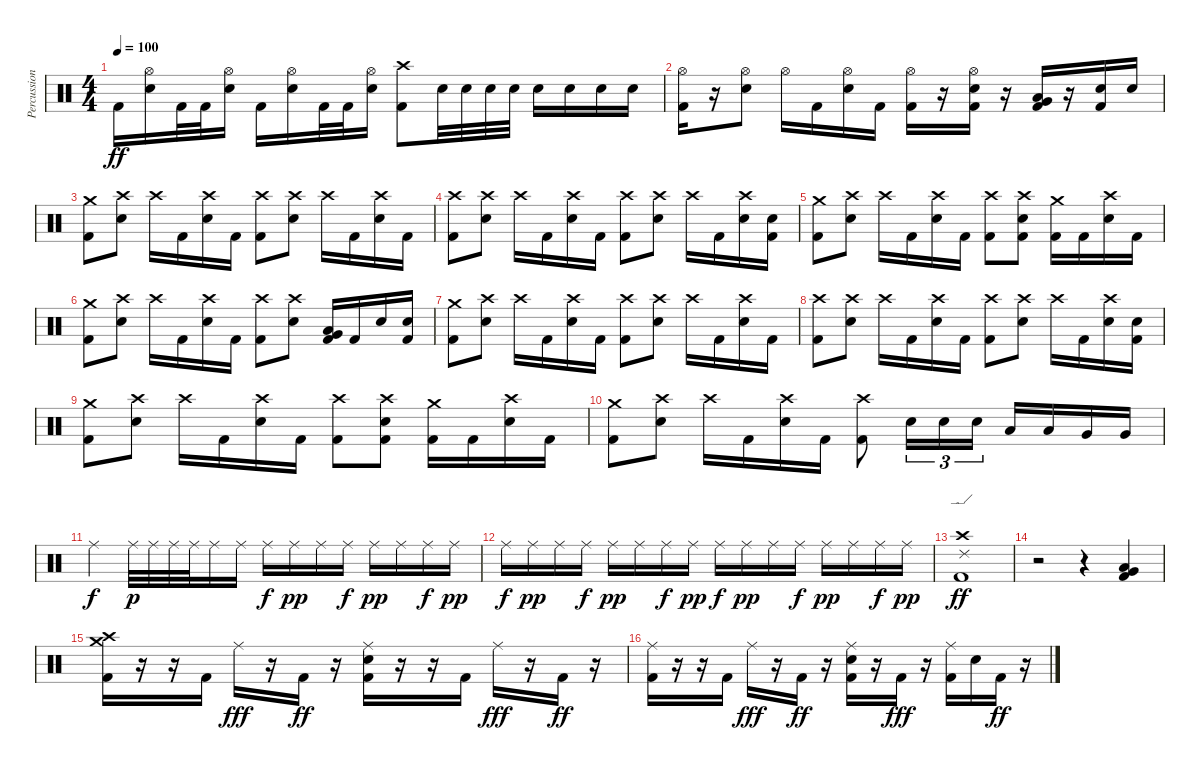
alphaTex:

\track ("Percussion" "Percussion") {instrument percussion}
\staff {score}
\articulation defaults
\ts (4 4)
\tempo 100
\clef neutral
\ks c "Kick (hit) 2".16{dy ff}
("Hi-Hat (open)" "Electric Snare (hit)").16 "Kick (hit) 2".32 "Kick (hit) 2".32 ("Hi-Hat (open)" "Electric Snare (hit)").16 "Kick (hit) 2".16 ("Hi-Hat (open)" "Electric Snare (hit)").16 "Kick (hit) 2".32 "Kick (hit) 2".32 ("Hi-Hat (open)" "Electric Snare (hit)").16 ("Crash high (hit)" "Kick (hit) 2").8 "Electric Snare (hit)".32 "Electric Snare (hit)".32 "Electric Snare (hit)".32 "Electric Snare (hit)".32 "Electric Snare (hit)".16 "Electric Snare (hit)".16 "Electric Snare (hit)".16 "Electric Snare (hit)".16 |
("Hi-Hat (open)" "Kick (hit) 2").16 r.16 ("Hi-Hat (open)" "Electric Snare (hit)").8 "Hi-Hat (open)".16 "Kick (hit) 2".16 ("Hi-Hat (open)" "Electric Snare (hit)").16 "Kick (hit) 2".16 ("Hi-Hat (open)" "Kick (hit) 2").16 r.16 ("Hi-Hat (open)" "Electric Snare (hit)" "Kick (hit) 2").16 r.16 ("Low Tom (hit)" "Very Low Tom (hit)" "Kick (hit) 2").16 r.16 ("Electric Snare (hit)" "Kick (hit) 2").16 "Electric Snare (hit)".16 |
("Crash medium (hit)" "Kick (hit) 2").8 ("Crash high (hit)" "Electric Snare (hit)").8 "Crash high (hit)".16 "Kick (hit) 2".16 ("Crash high (hit)" "Electric Snare (hit)").16 "Kick (hit) 2".16 ("Crash high (hit)" "Kick (hit) 2").8 ("Crash high (hit)" "Electric Snare (hit)").8 "Crash high (hit)".16 "Kick (hit) 2".16 ("Crash high (hit)" "Electric Snare (hit)").16 "Kick (hit) 2".16 |
("Crash high (hit)" "Kick (hit) 2").8 ("Crash high (hit)" "Electric Snare (hit)").8 "Crash high (hit)".16 "Kick (hit) 2".16 ("Crash high (hit)" "Electric Snare (hit)").16 "Kick (hit) 2".16 ("Crash high (hit)" "Kick (hit) 2").8 ("Crash high (hit)" "Electric Snare (hit)").8 "Crash high (hit)".16 "Kick (hit) 2".16 ("Crash high (hit)" "Electric Snare (hit)").16 ("Electric Snare (hit)" "Kick (hit) 2").16 |
("Crash medium (hit)" "Kick (hit) 2").8 ("Crash high (hit)" "Electric Snare (hit)").8 "Crash high (hit)".16 "Kick (hit) 2".16 ("Crash high (hit)" "Electric Snare (hit)").16 "Kick (hit) 2".16 ("Crash high (hit)" "Kick (hit) 2").8 ("Crash high (hit)" "Electric Snare (hit)" "Kick (hit) 2").8 ("Crash medium (hit)" "Kick (hit) 2").16 "Kick (hit) 2".16 ("Crash high (hit)" "Electric Snare (hit)").16 "Kick (hit) 2".16 |
("Crash medium (hit)" "Kick (hit) 2").8 ("Crash high (hit)" "Electric Snare (hit)").8 "Crash high (hit)".16 "Kick (hit) 2".16 ("Crash high (hit)" "Electric Snare (hit)").16 "Kick (hit) 2".16 ("Crash high (hit)" "Kick (hit) 2").8 ("Crash high (hit)" "Electric Snare (hit)").8 ("Low Tom (hit)" "Very Low Tom (hit)" "Kick (hit) 2").16 "Kick (hit) 2".16 "Electric Snare (hit)".16 ("Electric Snare (hit)" "Kick (hit) 2").16 |
("Crash medium (hit)" "Kick (hit) 2").8 ("Crash high (hit)" "Electric Snare (hit)").8 "Crash high (hit)".16 "Kick (hit) 2".16 ("Crash high (hit)" "Electric Snare (hit)").16 "Kick (hit) 2".16 ("Crash high (hit)" "Kick (hit) 2").8 ("Crash high (hit)" "Electric Snare (hit)").8 "Crash high (hit)".16 "Kick (hit) 2".16 ("Crash high (hit)" "Electric Snare (hit)").16 "Kick (hit) 2".16 |
("Crash high (hit)" "Kick (hit) 2").8 ("Crash high (hit)" "Electric Snare (hit)").8 "Crash high (hit)".16 "Kick (hit) 2".16 ("Crash high (hit)" "Electric Snare (hit)").16 "Kick (hit) 2".16 ("Crash high (hit)" "Kick (hit) 2").8 ("Crash high (hit)" "Electric Snare (hit)").8 "Crash high (hit)".16 "Kick (hit) 2".16 ("Crash high (hit)" "Electric Snare (hit)").16 ("Electric Snare (hit)" "Kick (hit) 2").16 |
("Crash medium (hit)" "Kick (hit) 2").8 ("Crash high (hit)" "Electric Snare (hit)").8 "Crash high (hit)".16 "Kick (hit) 2".16 ("Crash high (hit)" "Electric Snare (hit)").16 "Kick (hit) 2".16 ("Crash high (hit)" "Kick (hit) 2").8 ("Crash high (hit)" "Electric Snare (hit)" "Kick (hit) 2").8 ("Crash medium (hit)" "Kick (hit) 2").16 "Kick (hit) 2".16 ("Crash high (hit)" "Electric Snare (hit)").16 "Kick (hit) 2".16 |
("Crash medium (hit)" "Kick (hit) 2").8 ("Crash high (hit)" "Electric Snare (hit)").8 "Crash high (hit)".16 "Kick (hit) 2".16 ("Crash high (hit)" "Electric Snare (hit)").16 "Kick (hit) 2".16 ("Crash high (hit)" "Kick (hit) 2").8 "Electric Snare (hit)".16{tu (3 2)} "Electric Snare (hit)".16{tu (3 2)} "Electric Snare (hit)".16{tu (3 2)} "Low Tom (hit)".16 "Low Tom (hit)".16 "Very Low Tom (hit)".16 "Very Low Tom (hit)".16 |
"Ride (middle)".4{dy f} "Ride (middle)".32{dy p} "Ride (middle)".32 "Ride (middle)".32 "Ride (middle)".32 "Ride (middle)".16 "Ride (middle)".16 "Ride (middle)".16{dy f} "Ride (middle)".16{dy pp} "Ride (middle)".16 "Ride (middle)".16{dy f} "Ride (middle)".16{dy pp} "Ride (middle)".16 "Ride (middle)".16{dy f} "Ride (middle)".16{dy pp} |
"Ride (middle)".16{dy f} "Ride (middle)".16{dy pp} "Ride (middle)".16 "Ride (middle)".16{dy f} "Ride (middle)".16{dy pp} "Ride (middle)".16 "Ride (middle)".16{dy f} "Ride (middle)".16{dy pp} "Ride (middle)".16{dy f} "Ride (middle)".16{dy pp} "Ride (middle)".16 "Ride (middle)".16{dy f} "Ride (middle)".16{dy pp} "Ride (middle)".16 "Ride (middle)".16{dy f} "Ride (middle)".16{dy pp} |
("Ride (edge) 2" "Crash high (hit)" "Kick (hit) 2").1{dy ff} |
r.2 r.4 ("Low Tom (hit)" "Very Low Tom (hit)" "Kick (hit) 2").4 |
("Crash medium (hit)" "Crash high (hit)" "Kick (hit) 2").16 r.16 r.16 "Kick (hit) 2".16 "Ride (middle)".16{dy fff} r.16 "Kick (hit) 2".16{dy ff} r.16 ("Ride (middle)" "Electric Snare (hit)" "Kick (hit) 2").16 r.16 r.16 "Kick (hit) 2".16 "Ride (middle)".16{dy fff} r.16 "Kick (hit) 2".16{dy ff} r.16 |
("Ride (middle)" "Kick (hit) 2").16 r.16 r.16 "Kick (hit) 2".16 "Ride (middle)".16{dy fff} r.16 "Kick (hit) 2".16{dy ff} r.16 ("Ride (middle)" "Electric Snare (hit)" "Kick (hit) 2").16 r.16 "Kick (hit) 2".16{dy fff} r.16 ("Ride (middle)" "Kick (hit) 2").16 "Electric Snare (hit)".16 "Kick (hit) 2".16{dy ff} r.16
